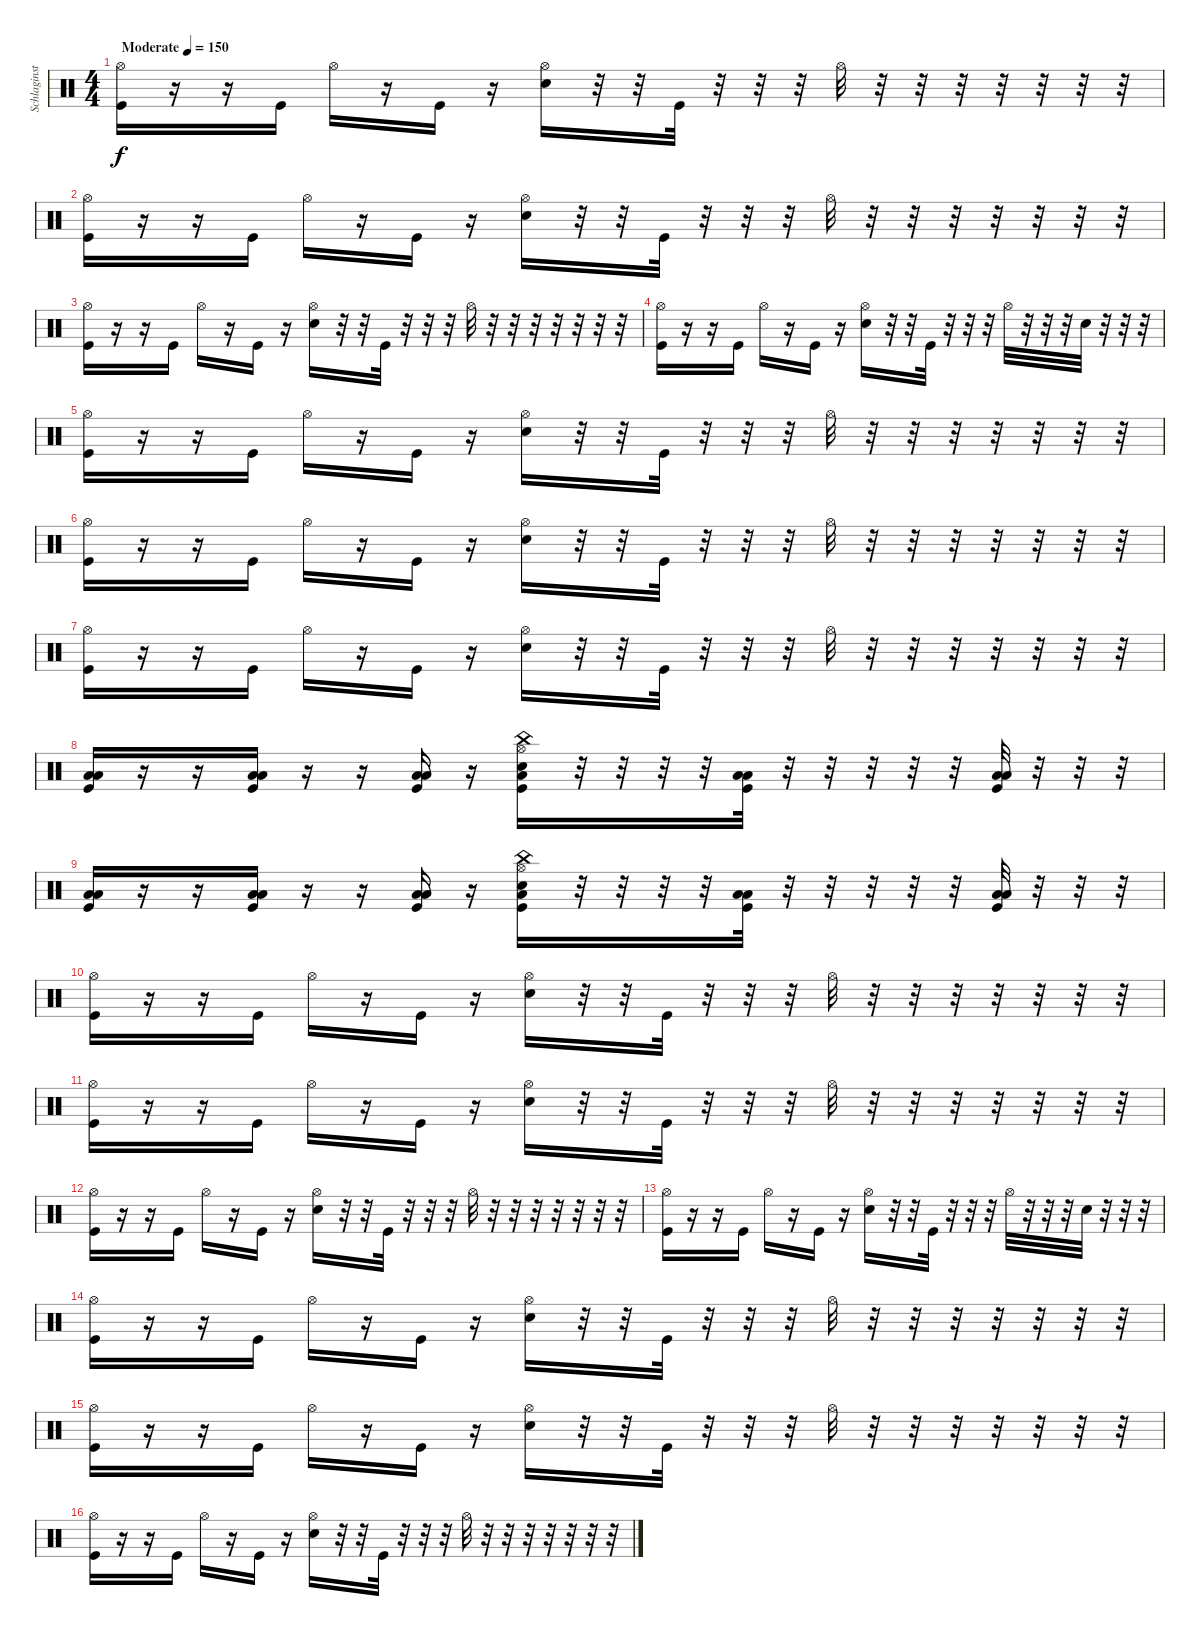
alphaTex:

\track ("Schlaginstrumente - Auswahl" "Schlaginst") {instrument percussion}
\staff {score}
\articulation defaults
\ts (4 4)
\tempo (150 "Moderate")
\clef neutral
\ks c
("Kick (hit)" "Hi-Hat (open)").16{dy f} r.16 r.16 "Kick (hit)".16 "Hi-Hat (open)".16 r.16 "Kick (hit)".16 r.16 ("Electric Snare (hit)" "Hi-Hat (open)").16 r.32 r.32 "Kick (hit)".32 r.32 r.32 r.32 "Hi-Hat (open)".32 r.32 r.32 r.32 r.32 r.32 r.32 r.32 |
("Kick (hit)" "Hi-Hat (open)").16 r.16 r.16 "Kick (hit)".16 "Hi-Hat (open)".16 r.16 "Kick (hit)".16 r.16 ("Electric Snare (hit)" "Hi-Hat (open)").16 r.32 r.32 "Kick (hit)".32 r.32 r.32 r.32 "Hi-Hat (open)".32 r.32 r.32 r.32 r.32 r.32 r.32 r.32 |
("Kick (hit)" "Hi-Hat (open)").16 r.16 r.16 "Kick (hit)".16 "Hi-Hat (open)".16 r.16 "Kick (hit)".16 r.16 ("Electric Snare (hit)" "Hi-Hat (open)").16 r.32 r.32 "Kick (hit)".32 r.32 r.32 r.32 "Hi-Hat (open)".32 r.32 r.32 r.32 r.32 r.32 r.32 r.32 |
("Kick (hit)" "Hi-Hat (open)").16 r.16 r.16 "Kick (hit)".16 "Hi-Hat (open)".16 r.16 "Kick (hit)".16 r.16 ("Electric Snare (hit)" "Hi-Hat (open)").16 r.32 r.32 "Kick (hit)".32 r.32 r.32 r.32 "Hi-Hat (open)".32 r.32 r.32 r.32 "Electric Snare (hit)".32 r.32 r.32 r.32 |
("Kick (hit)" "Hi-Hat (open)").16 r.16 r.16 "Kick (hit)".16 "Hi-Hat (open)".16 r.16 "Kick (hit)".16 r.16 ("Electric Snare (hit)" "Hi-Hat (open)").16 r.32 r.32 "Kick (hit)".32 r.32 r.32 r.32 "Hi-Hat (open)".32 r.32 r.32 r.32 r.32 r.32 r.32 r.32 |
("Kick (hit)" "Hi-Hat (open)").16 r.16 r.16 "Kick (hit)".16 "Hi-Hat (open)".16 r.16 "Kick (hit)".16 r.16 ("Electric Snare (hit)" "Hi-Hat (open)").16 r.32 r.32 "Kick (hit)".32 r.32 r.32 r.32 "Hi-Hat (open)".32 r.32 r.32 r.32 r.32 r.32 r.32 r.32 |
("Kick (hit)" "Hi-Hat (open)").16 r.16 r.16 "Kick (hit)".16 "Hi-Hat (open)".16 r.16 "Kick (hit)".16 r.16 ("Electric Snare (hit)" "Hi-Hat (open)").16 r.32 r.32 "Kick (hit)".32 r.32 r.32 r.32 "Hi-Hat (open)".32 r.32 r.32 r.32 r.32 r.32 r.32 r.32 |
("Kick (hit)" "Low Tom (hit)" "Low Floor Tom (hit)").16 r.16 r.16 ("Kick (hit)" "Low Tom (hit)" "Low Floor Tom (hit)").16 r.16 r.16 ("Kick (hit)" "Low Tom (hit)" "Low Floor Tom (hit)").16 r.16 ("Electric Snare (hit)" "China (hit)" "Kick (hit)" "Low Floor Tom (hit)" "Hi-Hat (open)").16 r.32 r.32 r.32 r.32 ("Kick (hit)" "Low Tom (hit)" "Low Floor Tom (hit)").32 r.32 r.32 r.32 r.32 r.32 ("Kick (hit)" "Low Tom (hit)" "Low Floor Tom (hit)").32 r.32 r.32 r.32 |
("Kick (hit)" "Low Tom (hit)" "Low Floor Tom (hit)").16 r.16 r.16 ("Kick (hit)" "Low Tom (hit)" "Low Floor Tom (hit)").16 r.16 r.16 ("Kick (hit)" "Low Tom (hit)" "Low Floor Tom (hit)").16 r.16 ("Electric Snare (hit)" "China (hit)" "Kick (hit)" "Low Floor Tom (hit)" "Hi-Hat (open)").16 r.32 r.32 r.32 r.32 ("Kick (hit)" "Low Tom (hit)" "Low Floor Tom (hit)").32 r.32 r.32 r.32 r.32 r.32 ("Kick (hit)" "Low Tom (hit)" "Low Floor Tom (hit)").32 r.32 r.32 r.32 |
("Kick (hit)" "Hi-Hat (open)").16 r.16 r.16 "Kick (hit)".16 "Hi-Hat (open)".16 r.16 "Kick (hit)".16 r.16 ("Electric Snare (hit)" "Hi-Hat (open)").16 r.32 r.32 "Kick (hit)".32 r.32 r.32 r.32 "Hi-Hat (open)".32 r.32 r.32 r.32 r.32 r.32 r.32 r.32 |
("Kick (hit)" "Hi-Hat (open)").16 r.16 r.16 "Kick (hit)".16 "Hi-Hat (open)".16 r.16 "Kick (hit)".16 r.16 ("Electric Snare (hit)" "Hi-Hat (open)").16 r.32 r.32 "Kick (hit)".32 r.32 r.32 r.32 "Hi-Hat (open)".32 r.32 r.32 r.32 r.32 r.32 r.32 r.32 |
("Kick (hit)" "Hi-Hat (open)").16 r.16 r.16 "Kick (hit)".16 "Hi-Hat (open)".16 r.16 "Kick (hit)".16 r.16 ("Electric Snare (hit)" "Hi-Hat (open)").16 r.32 r.32 "Kick (hit)".32 r.32 r.32 r.32 "Hi-Hat (open)".32 r.32 r.32 r.32 r.32 r.32 r.32 r.32 |
("Kick (hit)" "Hi-Hat (open)").16 r.16 r.16 "Kick (hit)".16 "Hi-Hat (open)".16 r.16 "Kick (hit)".16 r.16 ("Electric Snare (hit)" "Hi-Hat (open)").16 r.32 r.32 "Kick (hit)".32 r.32 r.32 r.32 "Hi-Hat (open)".32 r.32 r.32 r.32 "Electric Snare (hit)".32 r.32 r.32 r.32 |
("Kick (hit)" "Hi-Hat (open)").16 r.16 r.16 "Kick (hit)".16 "Hi-Hat (open)".16 r.16 "Kick (hit)".16 r.16 ("Electric Snare (hit)" "Hi-Hat (open)").16 r.32 r.32 "Kick (hit)".32 r.32 r.32 r.32 "Hi-Hat (open)".32 r.32 r.32 r.32 r.32 r.32 r.32 r.32 |
("Kick (hit)" "Hi-Hat (open)").16 r.16 r.16 "Kick (hit)".16 "Hi-Hat (open)".16 r.16 "Kick (hit)".16 r.16 ("Electric Snare (hit)" "Hi-Hat (open)").16 r.32 r.32 "Kick (hit)".32 r.32 r.32 r.32 "Hi-Hat (open)".32 r.32 r.32 r.32 r.32 r.32 r.32 r.32 |
("Kick (hit)" "Hi-Hat (open)").16 r.16 r.16 "Kick (hit)".16 "Hi-Hat (open)".16 r.16 "Kick (hit)".16 r.16 ("Electric Snare (hit)" "Hi-Hat (open)").16 r.32 r.32 "Kick (hit)".32 r.32 r.32 r.32 "Hi-Hat (open)".32 r.32 r.32 r.32 r.32 r.32 r.32 r.32
